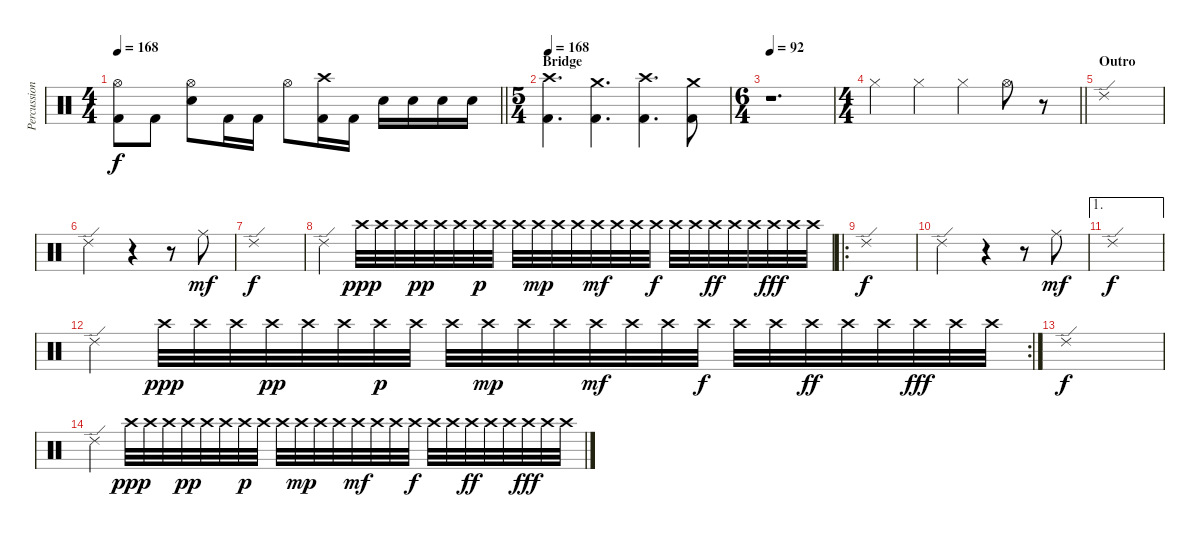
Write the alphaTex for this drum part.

\track ("Percussion" "Percussion") {instrument percussion}
\staff {score}
\articulation defaults
\ts (4 4)
\tempo 168
\clef neutral
\barLineRight lightlight
\ks c
("Hi-Hat (open)" "Kick (hit) 2").8{dy f} "Kick (hit) 2".8 ("Hi-Hat (open)" "Snare (hit) 2").8 "Kick (hit) 2".16 "Kick (hit) 2".16 "Hi-Hat (open)".8 ("Crash high (hit)" "Kick (hit) 2").16 "Kick (hit) 2".16 "Snare (hit) 2".16 "Snare (hit) 2".16 "Snare (hit) 2".16 "Snare (hit) 2".16 |
\ts (5 4)
\section ("" "Bridge")
\tempo 168
("Crash high (hit)" "Kick (hit) 2").4{d} ("Crash medium (hit)" "Kick (hit) 2").4{d} ("Crash high (hit)" "Kick (hit) 2").4{d} ("Crash medium (hit)" "Kick (hit) 2").8 |
\ts (6 4)
\tempo 92
r.1{d} |
\ts (4 4)
\barLineRight lightlight "Hi-Hat (closed)".4 "Hi-Hat (closed)".4 "Hi-Hat (closed)".4 "Hi-Hat (open)".8
r.8 |
\section ("" "Outro")
"Ride (edge) 2".1 |
"Ride (edge) 2".2 r.4 r.8 "Ride (middle)".8{dy mf} |
"Ride (edge) 2".1{dy f} |
"Ride (edge) 2".4 "Crash high (hit)".32{dy ppp} "Crash high (hit)".32 "Crash high (hit)".32 "Crash high (hit)".32{dy pp} "Crash high (hit)".32 "Crash high (hit)".32 "Crash high (hit)".32{dy p} "Crash high (hit)".32 "Crash high (hit)".32 "Crash high (hit)".32{dy mp} "Crash high (hit)".32 "Crash high (hit)".32 "Crash high (hit)".32{dy mf} "Crash high (hit)".32 "Crash high (hit)".32 "Crash high (hit)".32{dy f} "Crash high (hit)".32 "Crash high (hit)".32 "Crash high (hit)".32{dy ff} "Crash high (hit)".32 "Crash high (hit)".32 "Crash high (hit)".32{dy fff} "Crash high (hit)".32 "Crash high (hit)".32 |
\ro "Ride (edge) 2".1{dy f}
|
"Ride (edge) 2".2 r.4 r.8 "Ride (middle)".8{dy mf} |
\ae 1 "Ride (edge) 2".1{dy f}
|
\rc 2 "Ride (edge) 2".4 "Crash high (hit)".32{dy ppp} "Crash high (hit)".32 "Crash high (hit)".32 "Crash high (hit)".32{dy pp} "Crash high (hit)".32 "Crash high (hit)".32 "Crash high (hit)".32{dy p} "Crash high (hit)".32 "Crash high (hit)".32 "Crash high (hit)".32{dy mp} "Crash high (hit)".32 "Crash high (hit)".32 "Crash high (hit)".32{dy mf} "Crash high (hit)".32 "Crash high (hit)".32 "Crash high (hit)".32{dy f} "Crash high (hit)".32 "Crash high (hit)".32 "Crash high (hit)".32{dy ff} "Crash high (hit)".32 "Crash high (hit)".32 "Crash high (hit)".32{dy fff} "Crash high (hit)".32 "Crash high (hit)".32
|
"Ride (edge) 2".1{dy f} |
"Ride (edge) 2".4 "Crash high (hit)".32{dy ppp} "Crash high (hit)".32 "Crash high (hit)".32 "Crash high (hit)".32{dy pp} "Crash high (hit)".32 "Crash high (hit)".32 "Crash high (hit)".32{dy p} "Crash high (hit)".32 "Crash high (hit)".32 "Crash high (hit)".32{dy mp} "Crash high (hit)".32 "Crash high (hit)".32 "Crash high (hit)".32{dy mf} "Crash high (hit)".32 "Crash high (hit)".32 "Crash high (hit)".32{dy f} "Crash high (hit)".32 "Crash high (hit)".32 "Crash high (hit)".32{dy ff} "Crash high (hit)".32 "Crash high (hit)".32 "Crash high (hit)".32{dy fff} "Crash high (hit)".32 "Crash high (hit)".32
